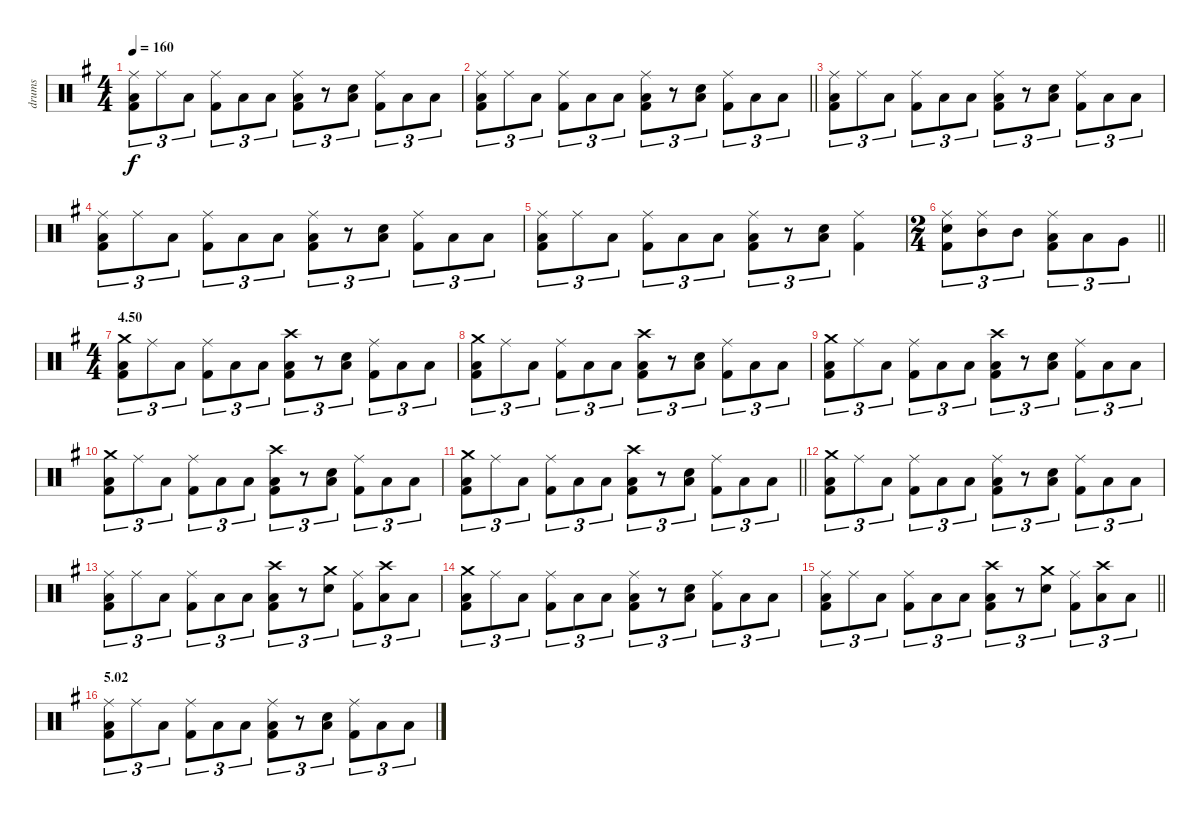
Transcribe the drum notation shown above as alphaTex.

\track ("drums" "drums") {instrument percussion}
\staff {score}
\articulation defaults
\ts (4 4)
\tempo 160
\clef neutral
\ks g
("Ride (middle)" "Low Tom (hit)" "Kick (hit) 2").8{tu (3 2) dy f} "Ride (middle)".8{tu (3 2)} "Low Tom (hit)".8{tu (3 2)} ("Ride (middle)" "Kick (hit) 2").8{tu (3 2)} "Low Tom (hit)".8{tu (3 2)} "Low Tom (hit)".8{tu (3 2)} ("Ride (middle)" "Low Tom (hit)" "Kick (hit) 2").8{tu (3 2)} r.8{tu (3 2)} ("Low Tom (hit)" "Electric Snare (hit)").8{tu (3 2)} ("Ride (middle)" "Kick (hit) 2").8{tu (3 2)} "Low Tom (hit)".8{tu (3 2)} "Low Tom (hit)".8{tu (3 2)} |
\barLineRight lightlight
("Ride (middle)" "Low Tom (hit)" "Kick (hit) 2").8{tu (3 2)} "Ride (middle)".8{tu (3 2)} "Low Tom (hit)".8{tu (3 2)} ("Ride (middle)" "Kick (hit) 2").8{tu (3 2)} "Low Tom (hit)".8{tu (3 2)} "Low Tom (hit)".8{tu (3 2)} ("Ride (middle)" "Low Tom (hit)" "Kick (hit) 2").8{tu (3 2)} r.8{tu (3 2)} ("Low Tom (hit)" "Electric Snare (hit)").8{tu (3 2)} ("Ride (middle)" "Kick (hit) 2").8{tu (3 2)} "Low Tom (hit)".8{tu (3 2)} "Low Tom (hit)".8{tu (3 2)} |
("Ride (middle)" "Low Tom (hit)" "Kick (hit) 2").8{tu (3 2)} "Ride (middle)".8{tu (3 2)} "Low Tom (hit)".8{tu (3 2)} ("Ride (middle)" "Kick (hit) 2").8{tu (3 2)} "Low Tom (hit)".8{tu (3 2)} "Low Tom (hit)".8{tu (3 2)} ("Ride (middle)" "Low Tom (hit)" "Kick (hit) 2").8{tu (3 2)} r.8{tu (3 2)} ("Low Tom (hit)" "Electric Snare (hit)").8{tu (3 2)} ("Ride (middle)" "Kick (hit) 2").8{tu (3 2)} "Low Tom (hit)".8{tu (3 2)} "Low Tom (hit)".8{tu (3 2)} |
("Ride (middle)" "Low Tom (hit)" "Kick (hit) 2").8{tu (3 2)} "Ride (middle)".8{tu (3 2)} "Low Tom (hit)".8{tu (3 2)} ("Ride (middle)" "Kick (hit) 2").8{tu (3 2)} "Low Tom (hit)".8{tu (3 2)} "Low Tom (hit)".8{tu (3 2)} ("Ride (middle)" "Low Tom (hit)" "Kick (hit) 2").8{tu (3 2)} r.8{tu (3 2)} ("Low Tom (hit)" "Electric Snare (hit)").8{tu (3 2)} ("Ride (middle)" "Kick (hit) 2").8{tu (3 2)} "Low Tom (hit)".8{tu (3 2)} "Low Tom (hit)".8{tu (3 2)} |
("Ride (middle)" "Low Tom (hit)" "Kick (hit) 2").8{tu (3 2)} "Ride (middle)".8{tu (3 2)} "Low Tom (hit)".8{tu (3 2)} ("Ride (middle)" "Kick (hit) 2").8{tu (3 2)} "Low Tom (hit)".8{tu (3 2)} "Low Tom (hit)".8{tu (3 2)} ("Ride (middle)" "Low Tom (hit)" "Kick (hit) 2").8{tu (3 2)} r.8{tu (3 2)} ("Low Tom (hit)" "Electric Snare (hit)").8{tu (3 2)} ("Ride (middle)" "Kick (hit) 2").4 |
\ts (2 4)
\barLineRight lightlight
("Ride (middle)" "Electric Snare (hit)" "Kick (hit) 2").8{tu (3 2)} ("Ride (middle)" "Mid Tom (hit)").8{tu (3 2)} "Mid Tom (hit)".8{tu (3 2)} ("Ride (middle)" "Low Tom (hit)" "Kick (hit) 2").8{tu (3 2)} "Low Tom (hit)".8{tu (3 2)} "Very Low Tom (hit)".8{tu (3 2)} |
\ts (4 4)
\section ("" "4.50")
("Crash medium (hit)" "Low Tom (hit)" "Kick (hit) 2").8{tu (3 2)} "Ride (middle)".8{tu (3 2)} "Low Tom (hit)".8{tu (3 2)} ("Ride (middle)" "Kick (hit) 2").8{tu (3 2)} "Low Tom (hit)".8{tu (3 2)} "Low Tom (hit)".8{tu (3 2)} ("Crash high (hit)" "Low Tom (hit)" "Kick (hit) 2").8{tu (3 2)} r.8{tu (3 2)} ("Low Tom (hit)" "Electric Snare (hit)").8{tu (3 2)} ("Ride (middle)" "Kick (hit) 2").8{tu (3 2)} "Low Tom (hit)".8{tu (3 2)} "Low Tom (hit)".8{tu (3 2)} |
("Crash medium (hit)" "Low Tom (hit)" "Kick (hit) 2").8{tu (3 2)} "Ride (middle)".8{tu (3 2)} "Low Tom (hit)".8{tu (3 2)} ("Ride (middle)" "Kick (hit) 2").8{tu (3 2)} "Low Tom (hit)".8{tu (3 2)} "Low Tom (hit)".8{tu (3 2)} ("Crash high (hit)" "Low Tom (hit)" "Kick (hit) 2").8{tu (3 2)} r.8{tu (3 2)} ("Low Tom (hit)" "Electric Snare (hit)").8{tu (3 2)} ("Ride (middle)" "Kick (hit) 2").8{tu (3 2)} "Low Tom (hit)".8{tu (3 2)} "Low Tom (hit)".8{tu (3 2)} |
("Crash medium (hit)" "Low Tom (hit)" "Kick (hit) 2").8{tu (3 2)} "Ride (middle)".8{tu (3 2)} "Low Tom (hit)".8{tu (3 2)} ("Ride (middle)" "Kick (hit) 2").8{tu (3 2)} "Low Tom (hit)".8{tu (3 2)} "Low Tom (hit)".8{tu (3 2)} ("Crash high (hit)" "Low Tom (hit)" "Kick (hit) 2").8{tu (3 2)} r.8{tu (3 2)} ("Low Tom (hit)" "Electric Snare (hit)").8{tu (3 2)} ("Ride (middle)" "Kick (hit) 2").8{tu (3 2)} "Low Tom (hit)".8{tu (3 2)} "Low Tom (hit)".8{tu (3 2)} |
("Crash medium (hit)" "Low Tom (hit)" "Kick (hit) 2").8{tu (3 2)} "Ride (middle)".8{tu (3 2)} "Low Tom (hit)".8{tu (3 2)} ("Ride (middle)" "Kick (hit) 2").8{tu (3 2)} "Low Tom (hit)".8{tu (3 2)} "Low Tom (hit)".8{tu (3 2)} ("Crash high (hit)" "Low Tom (hit)" "Kick (hit) 2").8{tu (3 2)} r.8{tu (3 2)} ("Low Tom (hit)" "Electric Snare (hit)").8{tu (3 2)} ("Ride (middle)" "Kick (hit) 2").8{tu (3 2)} "Low Tom (hit)".8{tu (3 2)} "Low Tom (hit)".8{tu (3 2)} |
\barLineRight lightlight
("Crash medium (hit)" "Low Tom (hit)" "Kick (hit) 2").8{tu (3 2)} "Ride (middle)".8{tu (3 2)} "Low Tom (hit)".8{tu (3 2)} ("Ride (middle)" "Kick (hit) 2").8{tu (3 2)} "Low Tom (hit)".8{tu (3 2)} "Low Tom (hit)".8{tu (3 2)} ("Crash high (hit)" "Low Tom (hit)" "Kick (hit) 2").8{tu (3 2)} r.8{tu (3 2)} ("Low Tom (hit)" "Electric Snare (hit)").8{tu (3 2)} ("Ride (middle)" "Kick (hit) 2").8{tu (3 2)} "Low Tom (hit)".8{tu (3 2)} "Low Tom (hit)".8{tu (3 2)} |
("Crash medium (hit)" "Low Tom (hit)" "Kick (hit) 2").8{tu (3 2)} "Ride (middle)".8{tu (3 2)} "Low Tom (hit)".8{tu (3 2)} ("Ride (middle)" "Kick (hit) 2").8{tu (3 2)} "Low Tom (hit)".8{tu (3 2)} "Low Tom (hit)".8{tu (3 2)} ("Ride (middle)" "Low Tom (hit)" "Kick (hit) 2").8{tu (3 2)} r.8{tu (3 2)} ("Low Tom (hit)" "Electric Snare (hit)").8{tu (3 2)} ("Ride (middle)" "Kick (hit) 2").8{tu (3 2)} "Low Tom (hit)".8{tu (3 2)} "Low Tom (hit)".8{tu (3 2)} |
("Ride (middle)" "Low Tom (hit)" "Kick (hit) 2").8{tu (3 2)} "Ride (middle)".8{tu (3 2)} "Low Tom (hit)".8{tu (3 2)} ("Ride (middle)" "Kick (hit) 2").8{tu (3 2)} "Low Tom (hit)".8{tu (3 2)} "Low Tom (hit)".8{tu (3 2)} ("Crash high (hit)" "Low Tom (hit)" "Kick (hit) 2").8{tu (3 2)} r.8{tu (3 2)} ("Crash medium (hit)" "Electric Snare (hit)").8{tu (3 2)} ("Ride (middle)" "Kick (hit) 2").8{tu (3 2)} ("Crash high (hit)" "Low Tom (hit)").8{tu (3 2)} "Low Tom (hit)".8{tu (3 2)} |
("Crash medium (hit)" "Low Tom (hit)" "Kick (hit) 2").8{tu (3 2)} "Ride (middle)".8{tu (3 2)} "Low Tom (hit)".8{tu (3 2)} ("Ride (middle)" "Kick (hit) 2").8{tu (3 2)} "Low Tom (hit)".8{tu (3 2)} "Low Tom (hit)".8{tu (3 2)} ("Ride (middle)" "Low Tom (hit)" "Kick (hit) 2").8{tu (3 2)} r.8{tu (3 2)} ("Low Tom (hit)" "Electric Snare (hit)").8{tu (3 2)} ("Ride (middle)" "Kick (hit) 2").8{tu (3 2)} "Low Tom (hit)".8{tu (3 2)} "Low Tom (hit)".8{tu (3 2)} |
\barLineRight lightlight
("Ride (middle)" "Low Tom (hit)" "Kick (hit) 2").8{tu (3 2)} "Ride (middle)".8{tu (3 2)} "Low Tom (hit)".8{tu (3 2)} ("Ride (middle)" "Kick (hit) 2").8{tu (3 2)} "Low Tom (hit)".8{tu (3 2)} "Low Tom (hit)".8{tu (3 2)} ("Crash high (hit)" "Low Tom (hit)" "Kick (hit) 2").8{tu (3 2)} r.8{tu (3 2)} ("Crash medium (hit)" "Electric Snare (hit)").8{tu (3 2)} ("Ride (middle)" "Kick (hit) 2").8{tu (3 2)} ("Crash high (hit)" "Low Tom (hit)").8{tu (3 2)} "Low Tom (hit)".8{tu (3 2)} |
\section ("" "5.02")
("Ride (middle)" "Low Tom (hit)" "Kick (hit) 2").8{tu (3 2)} "Ride (middle)".8{tu (3 2)} "Low Tom (hit)".8{tu (3 2)} ("Ride (middle)" "Kick (hit) 2").8{tu (3 2)} "Low Tom (hit)".8{tu (3 2)} "Low Tom (hit)".8{tu (3 2)} ("Ride (middle)" "Low Tom (hit)" "Kick (hit) 2").8{tu (3 2)} r.8{tu (3 2)} ("Low Tom (hit)" "Electric Snare (hit)").8{tu (3 2)} ("Ride (middle)" "Kick (hit) 2").8{tu (3 2)} "Low Tom (hit)".8{tu (3 2)} "Low Tom (hit)".8{tu (3 2)}
